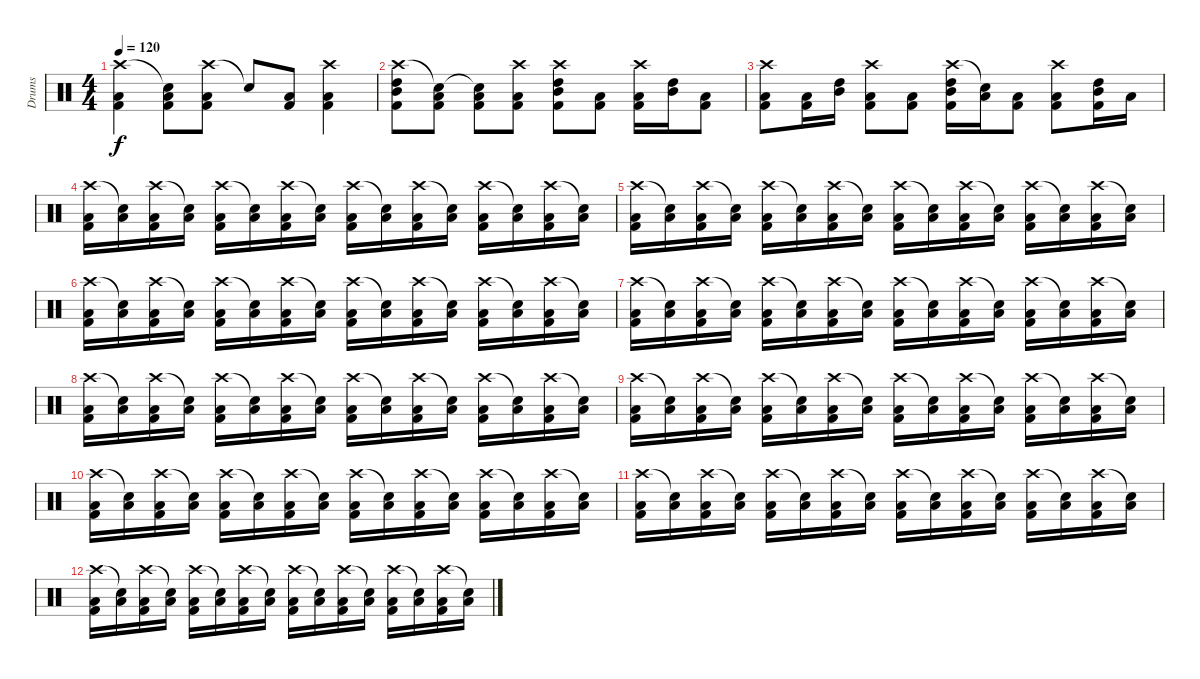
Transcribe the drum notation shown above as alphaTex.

\track ("Drums" "Drums") {instrument percussion}
\staff {score}
\articulation defaults
\ts (4 4)
\tempo 120
\clef neutral
\ks c
("Crash high (hit)" "Low Tom (hit)" "Kick (hit) 2").4{dy f} ("Snare (hit)"{t} "Low Tom (hit)" "Kick (hit) 2").8 ("Crash high (hit)" "Low Tom (hit)" "Kick (hit) 2").8 "Snare (hit)"{t}.8 ("Low Tom (hit)" "Kick (hit) 2").8 ("Crash high (hit)" "Low Tom (hit)" "Kick (hit) 2").4 |
("Crash high (hit)" "High Tom (hit)" "Mid Tom (hit)" "Kick (hit) 2").8 ("Snare (hit)"{t} "Low Tom (hit)" "Kick (hit) 2").8 ("Snare (hit)"{t} "Low Tom (hit)" "Kick (hit) 2").8 ("Crash high (hit)" "Low Tom (hit)" "Kick (hit) 2").8 ("Crash high (hit)" "High Tom (hit)" "Mid Tom (hit)" "Kick (hit) 2").8 ("Low Tom (hit)" "Kick (hit) 2").8 ("Crash high (hit)" "Low Tom (hit)" "Kick (hit) 2").16 ("High Tom (hit)" "Mid Tom (hit)").16 ("Low Tom (hit)" "Kick (hit) 2").8 |
("Crash high (hit)" "Low Tom (hit)" "Kick (hit) 2").8 ("Low Tom (hit)" "Kick (hit) 2").16 ("High Tom (hit)" "Mid Tom (hit)").16 ("Crash high (hit)" "Low Tom (hit)" "Kick (hit) 2").8 ("Low Tom (hit)" "Kick (hit) 2").8 ("Crash high (hit)" "High Tom (hit)" "Mid Tom (hit)" "Kick (hit) 2").16 ("Snare (hit)"{t} "Low Tom (hit)").16 ("Low Tom (hit)" "Kick (hit) 2").8 ("Crash high (hit)" "Low Tom (hit)" "Kick (hit) 2").8 ("High Tom (hit)" "Mid Tom (hit)" "Kick (hit) 2").16 "Low Tom (hit)".16 |
("Crash high (hit)" "Low Tom (hit)" "Kick (hit) 2").16 ("Snare (hit)"{t} "Low Tom (hit)").16 ("Crash high (hit)" "Low Tom (hit)" "Kick (hit) 2").16 ("Snare (hit)"{t} "Low Tom (hit)").16 ("Crash high (hit)" "Low Tom (hit)" "Kick (hit) 2").16 ("Snare (hit)"{t} "Low Tom (hit)").16 ("Crash high (hit)" "Low Tom (hit)" "Kick (hit) 2").16 ("Snare (hit)"{t} "Low Tom (hit)").16 ("Crash high (hit)" "Low Tom (hit)" "Kick (hit) 2").16 ("Snare (hit)"{t} "Low Tom (hit)").16 ("Crash high (hit)" "Low Tom (hit)" "Kick (hit) 2").16 ("Snare (hit)"{t} "Low Tom (hit)").16 ("Crash high (hit)" "Low Tom (hit)" "Kick (hit) 2").16 ("Snare (hit)"{t} "Low Tom (hit)").16 ("Crash high (hit)" "Low Tom (hit)" "Kick (hit) 2").16 ("Snare (hit)"{t} "Low Tom (hit)").16 |
("Crash high (hit)" "Low Tom (hit)" "Kick (hit) 2").16 ("Snare (hit)"{t} "Low Tom (hit)").16 ("Crash high (hit)" "Low Tom (hit)" "Kick (hit) 2").16 ("Snare (hit)"{t} "Low Tom (hit)").16 ("Crash high (hit)" "Low Tom (hit)" "Kick (hit) 2").16 ("Snare (hit)"{t} "Low Tom (hit)").16 ("Crash high (hit)" "Low Tom (hit)" "Kick (hit) 2").16 ("Snare (hit)"{t} "Low Tom (hit)").16 ("Crash high (hit)" "Low Tom (hit)" "Kick (hit) 2").16 ("Snare (hit)"{t} "Low Tom (hit)").16 ("Crash high (hit)" "Low Tom (hit)" "Kick (hit) 2").16 ("Snare (hit)"{t} "Low Tom (hit)").16 ("Crash high (hit)" "Low Tom (hit)" "Kick (hit) 2").16 ("Snare (hit)"{t} "Low Tom (hit)").16 ("Crash high (hit)" "Low Tom (hit)" "Kick (hit) 2").16 ("Snare (hit)"{t} "Low Tom (hit)").16 |
("Crash high (hit)" "Low Tom (hit)" "Kick (hit) 2").16 ("Snare (hit)"{t} "Low Tom (hit)").16 ("Crash high (hit)" "Low Tom (hit)" "Kick (hit) 2").16 ("Snare (hit)"{t} "Low Tom (hit)").16 ("Crash high (hit)" "Low Tom (hit)" "Kick (hit) 2").16 ("Snare (hit)"{t} "Low Tom (hit)").16 ("Crash high (hit)" "Low Tom (hit)" "Kick (hit) 2").16 ("Snare (hit)"{t} "Low Tom (hit)").16 ("Crash high (hit)" "Low Tom (hit)" "Kick (hit) 2").16 ("Snare (hit)"{t} "Low Tom (hit)").16 ("Crash high (hit)" "Low Tom (hit)" "Kick (hit) 2").16 ("Snare (hit)"{t} "Low Tom (hit)").16 ("Crash high (hit)" "Low Tom (hit)" "Kick (hit) 2").16 ("Snare (hit)"{t} "Low Tom (hit)").16 ("Crash high (hit)" "Low Tom (hit)" "Kick (hit) 2").16 ("Snare (hit)"{t} "Low Tom (hit)").16 |
("Crash high (hit)" "Low Tom (hit)" "Kick (hit) 2").16 ("Snare (hit)"{t} "Low Tom (hit)").16 ("Crash high (hit)" "Low Tom (hit)" "Kick (hit) 2").16 ("Snare (hit)"{t} "Low Tom (hit)").16 ("Crash high (hit)" "Low Tom (hit)" "Kick (hit) 2").16 ("Snare (hit)"{t} "Low Tom (hit)").16 ("Crash high (hit)" "Low Tom (hit)" "Kick (hit) 2").16 ("Snare (hit)"{t} "Low Tom (hit)").16 ("Crash high (hit)" "Low Tom (hit)" "Kick (hit) 2").16 ("Snare (hit)"{t} "Low Tom (hit)").16 ("Crash high (hit)" "Low Tom (hit)" "Kick (hit) 2").16 ("Snare (hit)"{t} "Low Tom (hit)").16 ("Crash high (hit)" "Low Tom (hit)" "Kick (hit) 2").16 ("Snare (hit)"{t} "Low Tom (hit)").16 ("Crash high (hit)" "Low Tom (hit)" "Kick (hit) 2").16 ("Snare (hit)"{t} "Low Tom (hit)").16 |
("Crash high (hit)" "Low Tom (hit)" "Kick (hit) 2").16 ("Snare (hit)"{t} "Low Tom (hit)").16 ("Crash high (hit)" "Low Tom (hit)" "Kick (hit) 2").16 ("Snare (hit)"{t} "Low Tom (hit)").16 ("Crash high (hit)" "Low Tom (hit)" "Kick (hit) 2").16 ("Snare (hit)"{t} "Low Tom (hit)").16 ("Crash high (hit)" "Low Tom (hit)" "Kick (hit) 2").16 ("Snare (hit)"{t} "Low Tom (hit)").16 ("Crash high (hit)" "Low Tom (hit)" "Kick (hit) 2").16 ("Snare (hit)"{t} "Low Tom (hit)").16 ("Crash high (hit)" "Low Tom (hit)" "Kick (hit) 2").16 ("Snare (hit)"{t} "Low Tom (hit)").16 ("Crash high (hit)" "Low Tom (hit)" "Kick (hit) 2").16 ("Snare (hit)"{t} "Low Tom (hit)").16 ("Crash high (hit)" "Low Tom (hit)" "Kick (hit) 2").16 ("Snare (hit)"{t} "Low Tom (hit)").16 |
("Crash high (hit)" "Low Tom (hit)" "Kick (hit) 2").16 ("Snare (hit)"{t} "Low Tom (hit)").16 ("Crash high (hit)" "Low Tom (hit)" "Kick (hit) 2").16 ("Snare (hit)"{t} "Low Tom (hit)").16 ("Crash high (hit)" "Low Tom (hit)" "Kick (hit) 2").16 ("Snare (hit)"{t} "Low Tom (hit)").16 ("Crash high (hit)" "Low Tom (hit)" "Kick (hit) 2").16 ("Snare (hit)"{t} "Low Tom (hit)").16 ("Crash high (hit)" "Low Tom (hit)" "Kick (hit) 2").16 ("Snare (hit)"{t} "Low Tom (hit)").16 ("Crash high (hit)" "Low Tom (hit)" "Kick (hit) 2").16 ("Snare (hit)"{t} "Low Tom (hit)").16 ("Crash high (hit)" "Low Tom (hit)" "Kick (hit) 2").16 ("Snare (hit)"{t} "Low Tom (hit)").16 ("Crash high (hit)" "Low Tom (hit)" "Kick (hit) 2").16 ("Snare (hit)"{t} "Low Tom (hit)").16 |
("Crash high (hit)" "Low Tom (hit)" "Kick (hit) 2").16 ("Snare (hit)"{t} "Low Tom (hit)").16 ("Crash high (hit)" "Low Tom (hit)" "Kick (hit) 2").16 ("Snare (hit)"{t} "Low Tom (hit)").16 ("Crash high (hit)" "Low Tom (hit)" "Kick (hit) 2").16 ("Snare (hit)"{t} "Low Tom (hit)").16 ("Crash high (hit)" "Low Tom (hit)" "Kick (hit) 2").16 ("Snare (hit)"{t} "Low Tom (hit)").16 ("Crash high (hit)" "Low Tom (hit)" "Kick (hit) 2").16 ("Snare (hit)"{t} "Low Tom (hit)").16 ("Crash high (hit)" "Low Tom (hit)" "Kick (hit) 2").16 ("Snare (hit)"{t} "Low Tom (hit)").16 ("Crash high (hit)" "Low Tom (hit)" "Kick (hit) 2").16 ("Snare (hit)"{t} "Low Tom (hit)").16 ("Crash high (hit)" "Low Tom (hit)" "Kick (hit) 2").16 ("Snare (hit)"{t} "Low Tom (hit)").16 |
("Crash high (hit)" "Low Tom (hit)" "Kick (hit) 2").16 ("Snare (hit)"{t} "Low Tom (hit)").16 ("Crash high (hit)" "Low Tom (hit)" "Kick (hit) 2").16 ("Snare (hit)"{t} "Low Tom (hit)").16 ("Crash high (hit)" "Low Tom (hit)" "Kick (hit) 2").16 ("Snare (hit)"{t} "Low Tom (hit)").16 ("Crash high (hit)" "Low Tom (hit)" "Kick (hit) 2").16 ("Snare (hit)"{t} "Low Tom (hit)").16 ("Crash high (hit)" "Low Tom (hit)" "Kick (hit) 2").16 ("Snare (hit)"{t} "Low Tom (hit)").16 ("Crash high (hit)" "Low Tom (hit)" "Kick (hit) 2").16 ("Snare (hit)"{t} "Low Tom (hit)").16 ("Crash high (hit)" "Low Tom (hit)" "Kick (hit) 2").16 ("Snare (hit)"{t} "Low Tom (hit)").16 ("Crash high (hit)" "Low Tom (hit)" "Kick (hit) 2").16 ("Snare (hit)"{t} "Low Tom (hit)").16 |
("Crash high (hit)" "Low Tom (hit)" "Kick (hit) 2").16 ("Snare (hit)"{t} "Low Tom (hit)").16 ("Crash high (hit)" "Low Tom (hit)" "Kick (hit) 2").16 ("Snare (hit)"{t} "Low Tom (hit)").16 ("Crash high (hit)" "Low Tom (hit)" "Kick (hit) 2").16 ("Snare (hit)"{t} "Low Tom (hit)").16 ("Crash high (hit)" "Low Tom (hit)" "Kick (hit) 2").16 ("Snare (hit)"{t} "Low Tom (hit)").16 ("Crash high (hit)" "Low Tom (hit)" "Kick (hit) 2").16 ("Snare (hit)"{t} "Low Tom (hit)").16 ("Crash high (hit)" "Low Tom (hit)" "Kick (hit) 2").16 ("Snare (hit)"{t} "Low Tom (hit)").16 ("Crash high (hit)" "Low Tom (hit)" "Kick (hit) 2").16 ("Snare (hit)"{t} "Low Tom (hit)").16 ("Crash high (hit)" "Low Tom (hit)" "Kick (hit) 2").16 ("Snare (hit)"{t} "Low Tom (hit)").16
